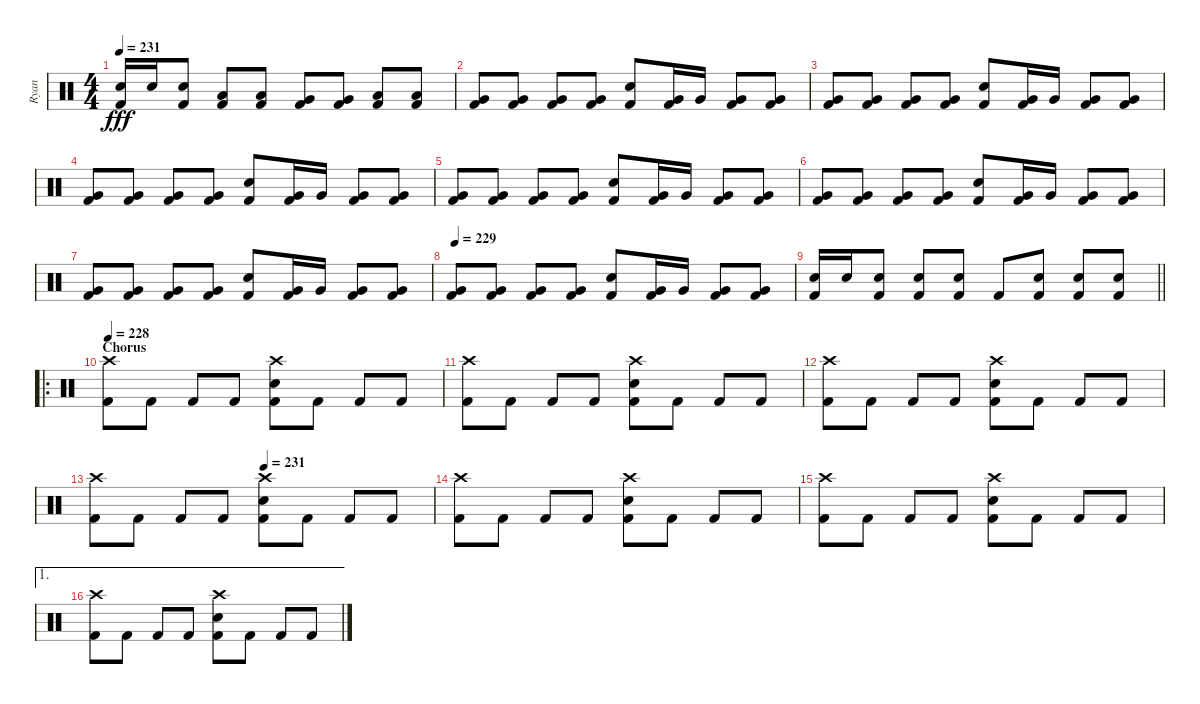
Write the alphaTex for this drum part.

\track ("Ryan" "Ryan") {instrument percussion}
\staff {score}
\articulation defaults
\ts (4 4)
\tempo 231
\clef neutral
\ks c
("Electric Snare (hit)" "Kick (hit) 2").16{dy fff} "Electric Snare (hit)".16 ("Electric Snare (hit)" "Kick (hit) 2").8 ("Low Floor Tom (hit)" "Kick (hit) 2").8 ("Low Floor Tom (hit)" "Kick (hit) 2").8 ("Very Low Tom (hit)" "Kick (hit) 2").8 ("Very Low Tom (hit)" "Kick (hit) 2").8 ("Low Tom (hit)" "Kick (hit) 2").8 ("Low Tom (hit)" "Kick (hit) 2").8 |
("Very Low Tom (hit)" "Kick (hit) 2").8 ("Very Low Tom (hit)" "Kick (hit) 2").8 ("Very Low Tom (hit)" "Kick (hit) 2").8 ("Very Low Tom (hit)" "Kick (hit) 2").8 ("Electric Snare (hit)" "Kick (hit) 2").8 ("Very Low Tom (hit)" "Kick (hit) 2").16 "Very Low Tom (hit)".16 ("Very Low Tom (hit)" "Kick (hit) 2").8 ("Very Low Tom (hit)" "Kick (hit) 2").8 |
("Very Low Tom (hit)" "Kick (hit) 2").8 ("Very Low Tom (hit)" "Kick (hit) 2").8 ("Very Low Tom (hit)" "Kick (hit) 2").8 ("Very Low Tom (hit)" "Kick (hit) 2").8 ("Electric Snare (hit)" "Kick (hit) 2").8 ("Very Low Tom (hit)" "Kick (hit) 2").16 "Very Low Tom (hit)".16 ("Very Low Tom (hit)" "Kick (hit) 2").8 ("Very Low Tom (hit)" "Kick (hit) 2").8 |
("Very Low Tom (hit)" "Kick (hit) 2").8 ("Very Low Tom (hit)" "Kick (hit) 2").8 ("Very Low Tom (hit)" "Kick (hit) 2").8 ("Very Low Tom (hit)" "Kick (hit) 2").8 ("Electric Snare (hit)" "Kick (hit) 2").8 ("Very Low Tom (hit)" "Kick (hit) 2").16 "Very Low Tom (hit)".16 ("Very Low Tom (hit)" "Kick (hit) 2").8 ("Very Low Tom (hit)" "Kick (hit) 2").8 |
("Very Low Tom (hit)" "Kick (hit) 2").8 ("Very Low Tom (hit)" "Kick (hit) 2").8 ("Very Low Tom (hit)" "Kick (hit) 2").8 ("Very Low Tom (hit)" "Kick (hit) 2").8 ("Electric Snare (hit)" "Kick (hit) 2").8 ("Very Low Tom (hit)" "Kick (hit) 2").16 "Very Low Tom (hit)".16 ("Very Low Tom (hit)" "Kick (hit) 2").8 ("Very Low Tom (hit)" "Kick (hit) 2").8 |
("Very Low Tom (hit)" "Kick (hit) 2").8 ("Very Low Tom (hit)" "Kick (hit) 2").8 ("Very Low Tom (hit)" "Kick (hit) 2").8 ("Very Low Tom (hit)" "Kick (hit) 2").8 ("Electric Snare (hit)" "Kick (hit) 2").8 ("Very Low Tom (hit)" "Kick (hit) 2").16 "Very Low Tom (hit)".16 ("Very Low Tom (hit)" "Kick (hit) 2").8 ("Very Low Tom (hit)" "Kick (hit) 2").8 |
("Very Low Tom (hit)" "Kick (hit) 2").8 ("Very Low Tom (hit)" "Kick (hit) 2").8 ("Very Low Tom (hit)" "Kick (hit) 2").8 ("Very Low Tom (hit)" "Kick (hit) 2").8 ("Electric Snare (hit)" "Kick (hit) 2").8 ("Very Low Tom (hit)" "Kick (hit) 2").16 "Very Low Tom (hit)".16 ("Very Low Tom (hit)" "Kick (hit) 2").8 ("Very Low Tom (hit)" "Kick (hit) 2").8 |
\tempo 229
("Very Low Tom (hit)" "Kick (hit) 2").8 ("Very Low Tom (hit)" "Kick (hit) 2").8 ("Very Low Tom (hit)" "Kick (hit) 2").8 ("Very Low Tom (hit)" "Kick (hit) 2").8 ("Electric Snare (hit)" "Kick (hit) 2").8 ("Very Low Tom (hit)" "Kick (hit) 2").16 "Very Low Tom (hit)".16 ("Very Low Tom (hit)" "Kick (hit) 2").8 ("Very Low Tom (hit)" "Kick (hit) 2").8 |
\barLineRight lightlight
("Electric Snare (hit)" "Kick (hit) 2").16 "Electric Snare (hit)".16 ("Electric Snare (hit)" "Kick (hit) 2").8 ("Electric Snare (hit)" "Kick (hit) 2").8 ("Electric Snare (hit)" "Kick (hit) 2").8 "Kick (hit) 2".8 ("Electric Snare (hit)" "Kick (hit) 2").8 ("Electric Snare (hit)" "Kick (hit) 2").8 ("Electric Snare (hit)" "Kick (hit) 2").8 |
\ro
\section ("" "Chorus")
\tempo 228
("Crash high (hit)" "Kick (hit) 2").8 "Kick (hit) 2".8 "Kick (hit) 2".8 "Kick (hit) 2".8 ("Crash high (hit)" "Electric Snare (hit)" "Kick (hit) 2").8 "Kick (hit) 2".8 "Kick (hit) 2".8 "Kick (hit) 2".8 |
("Crash high (hit)" "Kick (hit) 2").8 "Kick (hit) 2".8 "Kick (hit) 2".8 "Kick (hit) 2".8 ("Crash high (hit)" "Electric Snare (hit)" "Kick (hit) 2").8 "Kick (hit) 2".8 "Kick (hit) 2".8 "Kick (hit) 2".8 |
("Crash high (hit)" "Kick (hit) 2").8 "Kick (hit) 2".8 "Kick (hit) 2".8 "Kick (hit) 2".8 ("Crash high (hit)" "Electric Snare (hit)" "Kick (hit) 2").8 "Kick (hit) 2".8 "Kick (hit) 2".8 "Kick (hit) 2".8 |
\tempo (231 0.5)
("Crash high (hit)" "Kick (hit) 2").8 "Kick (hit) 2".8 "Kick (hit) 2".8 "Kick (hit) 2".8 ("Crash high (hit)" "Electric Snare (hit)" "Kick (hit) 2").8 "Kick (hit) 2".8 "Kick (hit) 2".8 "Kick (hit) 2".8 |
("Crash high (hit)" "Kick (hit) 2").8 "Kick (hit) 2".8 "Kick (hit) 2".8 "Kick (hit) 2".8 ("Crash high (hit)" "Electric Snare (hit)" "Kick (hit) 2").8 "Kick (hit) 2".8 "Kick (hit) 2".8 "Kick (hit) 2".8 |
("Crash high (hit)" "Kick (hit) 2").8 "Kick (hit) 2".8 "Kick (hit) 2".8 "Kick (hit) 2".8 ("Crash high (hit)" "Electric Snare (hit)" "Kick (hit) 2").8 "Kick (hit) 2".8 "Kick (hit) 2".8 "Kick (hit) 2".8 |
\ae 1
("Crash high (hit)" "Kick (hit) 2").8 "Kick (hit) 2".8 "Kick (hit) 2".8 "Kick (hit) 2".8 ("Crash high (hit)" "Electric Snare (hit)" "Kick (hit) 2").8 "Kick (hit) 2".8 "Kick (hit) 2".8 "Kick (hit) 2".8
